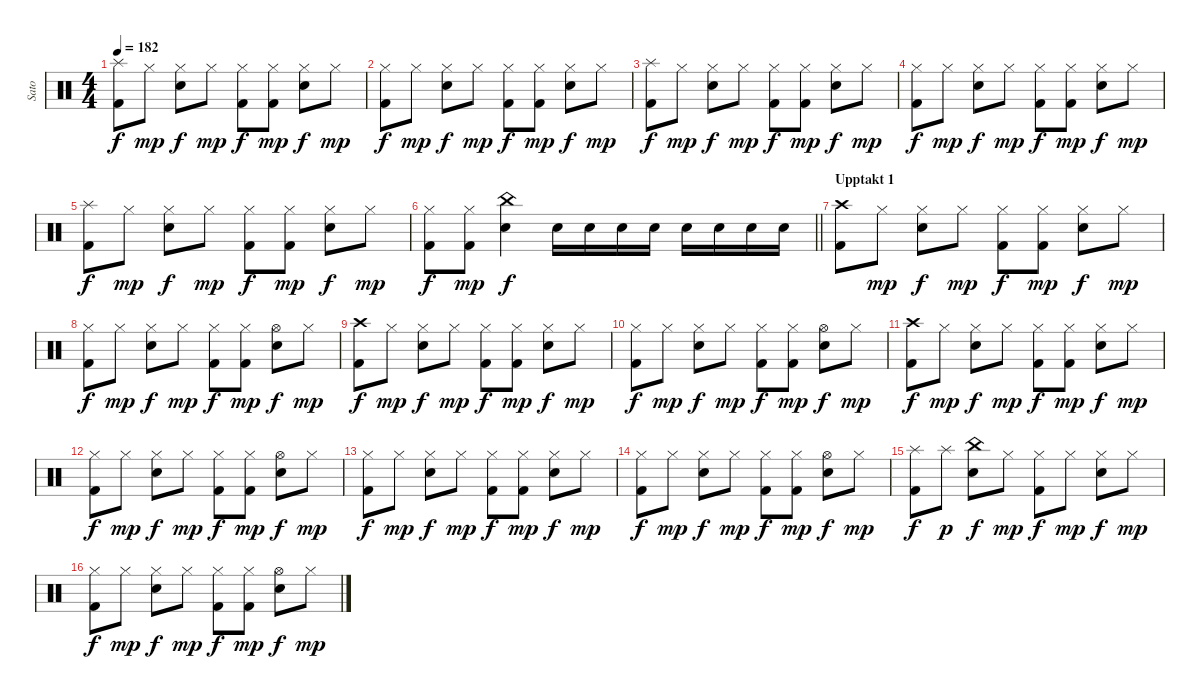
\track ("Sato" "Sato") {instrument percussion}
\staff {score}
\articulation defaults
\ts (4 4)
\tempo 182
\clef neutral
\ks c
("Splash (hit)" "Kick (hit) 2").8{dy f} "Hi-Hat (closed)".8{dy mp} ("Hi-Hat (closed)" "Electric Snare (hit)").8{dy f} "Hi-Hat (closed)".8{dy mp} ("Hi-Hat (closed)" "Kick (hit) 2").8{dy f} ("Hi-Hat (closed)" "Kick (hit) 2").8{dy mp} ("Hi-Hat (closed)" "Electric Snare (hit)").8{dy f} "Hi-Hat (closed)".8{dy mp} |
("Hi-Hat (closed)" "Kick (hit) 2").8{dy f} "Hi-Hat (closed)".8{dy mp} ("Hi-Hat (closed)" "Electric Snare (hit)").8{dy f} "Hi-Hat (closed)".8{dy mp} ("Hi-Hat (closed)" "Kick (hit) 2").8{dy f} ("Hi-Hat (closed)" "Kick (hit) 2").8{dy mp} ("Hi-Hat (closed)" "Electric Snare (hit)").8{dy f} "Hi-Hat (closed)".8{dy mp} |
("Splash (hit)" "Kick (hit) 2").8{dy f} "Hi-Hat (closed)".8{dy mp} ("Hi-Hat (closed)" "Electric Snare (hit)").8{dy f} "Hi-Hat (closed)".8{dy mp} ("Hi-Hat (closed)" "Kick (hit) 2").8{dy f} ("Hi-Hat (closed)" "Kick (hit) 2").8{dy mp} ("Hi-Hat (closed)" "Electric Snare (hit)").8{dy f} "Hi-Hat (closed)".8{dy mp} |
("Hi-Hat (closed)" "Kick (hit) 2").8{dy f} "Hi-Hat (closed)".8{dy mp} ("Hi-Hat (closed)" "Electric Snare (hit)").8{dy f} "Hi-Hat (closed)".8{dy mp} ("Hi-Hat (closed)" "Kick (hit) 2").8{dy f} ("Hi-Hat (closed)" "Kick (hit) 2").8{dy mp} ("Hi-Hat (closed)" "Electric Snare (hit)").8{dy f} "Hi-Hat (closed)".8{dy mp} |
("Splash (hit)" "Kick (hit) 2").8{dy f} "Hi-Hat (closed)".8{dy mp} ("Hi-Hat (closed)" "Electric Snare (hit)").8{dy f} "Hi-Hat (closed)".8{dy mp} ("Hi-Hat (closed)" "Kick (hit) 2").8{dy f} ("Hi-Hat (closed)" "Kick (hit) 2").8{dy mp} ("Hi-Hat (closed)" "Electric Snare (hit)").8{dy f} "Hi-Hat (closed)".8{dy mp} |
\barLineRight lightlight
("Hi-Hat (closed)" "Kick (hit) 2").8{dy f} ("Hi-Hat (closed)" "Kick (hit) 2").8{dy mp} ("China (hit)" "Electric Snare (hit)").4{dy f} "Electric Snare (hit)".16 "Electric Snare (hit)".16 "Electric Snare (hit)".16 "Electric Snare (hit)".16 "Electric Snare (hit)".16 "Electric Snare (hit)".16 "Electric Snare (hit)".16 "Electric Snare (hit)".16 |
\section ("" "Upptakt 1")
("Crash high (hit)" "Kick (hit) 2").8 "Hi-Hat (closed)".8{dy mp} ("Hi-Hat (closed)" "Electric Snare (hit)").8{dy f} "Hi-Hat (closed)".8{dy mp} ("Hi-Hat (closed)" "Kick (hit) 2").8{dy f} ("Hi-Hat (closed)" "Kick (hit) 2").8{dy mp} ("Hi-Hat (closed)" "Electric Snare (hit)").8{dy f} "Hi-Hat (closed)".8{dy mp} |
("Hi-Hat (closed)" "Kick (hit) 2").8{dy f} "Hi-Hat (closed)".8{dy mp} ("Hi-Hat (closed)" "Electric Snare (hit)").8{dy f} "Hi-Hat (closed)".8{dy mp} ("Hi-Hat (closed)" "Kick (hit) 2").8{dy f} ("Hi-Hat (closed)" "Kick (hit) 2").8{dy mp} ("Hi-Hat (open)" "Electric Snare (hit)").8{dy f} "Hi-Hat (closed)".8{dy mp} |
("Crash high (hit)" "Kick (hit) 2").8{dy f} "Hi-Hat (closed)".8{dy mp} ("Hi-Hat (closed)" "Electric Snare (hit)").8{dy f} "Hi-Hat (closed)".8{dy mp} ("Hi-Hat (closed)" "Kick (hit) 2").8{dy f} ("Hi-Hat (closed)" "Kick (hit) 2").8{dy mp} ("Hi-Hat (closed)" "Electric Snare (hit)").8{dy f} "Hi-Hat (closed)".8{dy mp} |
("Hi-Hat (closed)" "Kick (hit) 2").8{dy f} "Hi-Hat (closed)".8{dy mp} ("Hi-Hat (closed)" "Electric Snare (hit)").8{dy f} "Hi-Hat (closed)".8{dy mp} ("Hi-Hat (closed)" "Kick (hit) 2").8{dy f} ("Hi-Hat (closed)" "Kick (hit) 2").8{dy mp} ("Hi-Hat (open)" "Electric Snare (hit)").8{dy f} "Hi-Hat (closed)".8{dy mp} |
("Crash high (hit)" "Kick (hit) 2").8{dy f} "Hi-Hat (closed)".8{dy mp} ("Hi-Hat (closed)" "Electric Snare (hit)").8{dy f} "Hi-Hat (closed)".8{dy mp} ("Hi-Hat (closed)" "Kick (hit) 2").8{dy f} ("Hi-Hat (closed)" "Kick (hit) 2").8{dy mp} ("Hi-Hat (closed)" "Electric Snare (hit)").8{dy f} "Hi-Hat (closed)".8{dy mp} |
("Hi-Hat (closed)" "Kick (hit) 2").8{dy f} "Hi-Hat (closed)".8{dy mp} ("Hi-Hat (closed)" "Electric Snare (hit)").8{dy f} "Hi-Hat (closed)".8{dy mp} ("Hi-Hat (closed)" "Kick (hit) 2").8{dy f} ("Hi-Hat (closed)" "Kick (hit) 2").8{dy mp} ("Hi-Hat (open)" "Electric Snare (hit)").8{dy f} "Hi-Hat (closed)".8{dy mp} |
("Hi-Hat (closed)" "Kick (hit) 2").8{dy f} "Hi-Hat (closed)".8{dy mp} ("Hi-Hat (closed)" "Electric Snare (hit)").8{dy f} "Hi-Hat (closed)".8{dy mp} ("Hi-Hat (closed)" "Kick (hit) 2").8{dy f} ("Hi-Hat (closed)" "Kick (hit) 2").8{dy mp} ("Hi-Hat (closed)" "Electric Snare (hit)").8{dy f} "Hi-Hat (closed)".8{dy mp} |
("Hi-Hat (closed)" "Kick (hit) 2").8{dy f} "Hi-Hat (closed)".8{dy mp} ("Hi-Hat (closed)" "Electric Snare (hit)").8{dy f} "Hi-Hat (closed)".8{dy mp} ("Hi-Hat (closed)" "Kick (hit) 2").8{dy f} ("Hi-Hat (closed)" "Kick (hit) 2").8{dy mp} ("Hi-Hat (open)" "Electric Snare (hit)").8{dy f} "Hi-Hat (closed)".8{dy mp} |
("Splash (hit)" "Kick (hit) 2").8{dy f} "Splash (hit)".8{dy p} ("China (hit)" "Electric Snare (hit)").8{dy f} "Hi-Hat (closed)".8{dy mp} ("Hi-Hat (closed)" "Kick (hit) 2").8{dy f} "Hi-Hat (closed)".8{dy mp} ("Hi-Hat (closed)" "Electric Snare (hit)").8{dy f} "Hi-Hat (closed)".8{dy mp} |
("Hi-Hat (closed)" "Kick (hit) 2").8{dy f} "Hi-Hat (closed)".8{dy mp} ("Hi-Hat (closed)" "Electric Snare (hit)").8{dy f} "Hi-Hat (closed)".8{dy mp} ("Hi-Hat (closed)" "Kick (hit) 2").8{dy f} ("Hi-Hat (closed)" "Kick (hit) 2").8{dy mp} ("Hi-Hat (open)" "Electric Snare (hit)").8{dy f} "Hi-Hat (closed)".8{dy mp}
